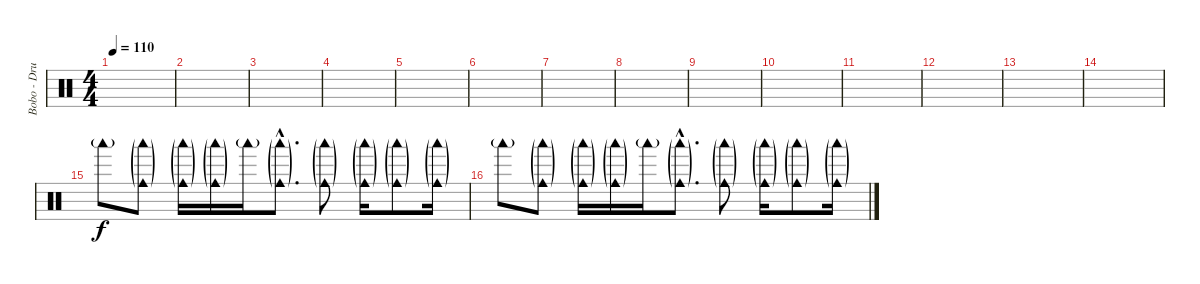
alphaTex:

\track ("Bobo - Drums" "Bobo - Dru") {instrument percussion}
\staff {score}
\articulation defaults
\ts (4 4)
\tempo 110
\clef neutral
\ks c
|
|
|
|
|
|
|
|
|
|
|
|
|
|
"Woodblock low (hit)"{g}.8 ("Woodblock low (hit)"{g} "Cowbell medium (hit)"{g}).8 ("Woodblock low (hit)"{g} "Cowbell medium (hit)"{g}).16 ("Woodblock low (hit)"{g} "Cowbell medium (hit)"{g}).16 "Woodblock low (hit)"{g}.16 ("Woodblock low (hit)"{g hac} "Cowbell medium (hit)"{g hac}).8{d} ("Woodblock low (hit)"{g} "Cowbell medium (hit)"{g}).8 ("Woodblock low (hit)"{g} "Cowbell medium (hit)"{g}).16 ("Woodblock low (hit)"{g} "Cowbell medium (hit)"{g}).8 ("Woodblock low (hit)"{g} "Cowbell medium (hit)"{g}).16 |
"Woodblock low (hit)"{g}.8 ("Woodblock low (hit)"{g} "Cowbell medium (hit)"{g}).8 ("Woodblock low (hit)"{g} "Cowbell medium (hit)"{g}).16 ("Woodblock low (hit)"{g} "Cowbell medium (hit)"{g}).16 "Woodblock low (hit)"{g}.16 ("Woodblock low (hit)"{g hac} "Cowbell medium (hit)"{g hac}).8{d} ("Woodblock low (hit)"{g} "Cowbell medium (hit)"{g}).8 ("Woodblock low (hit)"{g} "Cowbell medium (hit)"{g}).16 ("Woodblock low (hit)"{g} "Cowbell medium (hit)"{g}).8 ("Woodblock low (hit)"{g} "Cowbell medium (hit)"{g}).16
